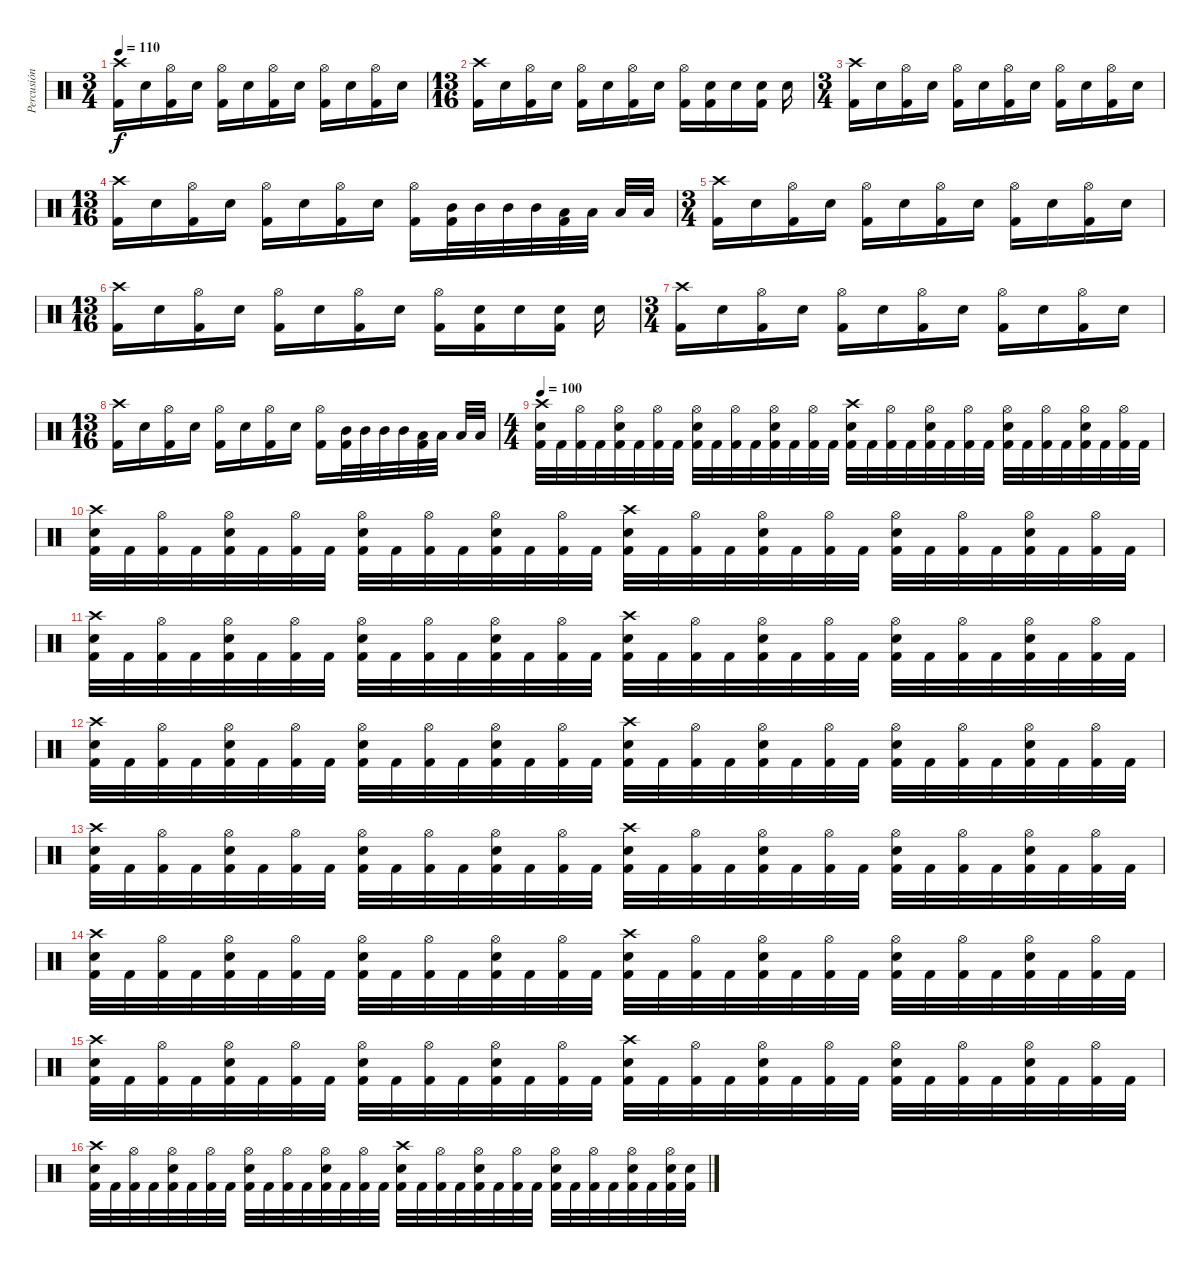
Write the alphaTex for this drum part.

\track ("Percusión" "Percusión") {instrument percussion}
\staff {score}
\articulation defaults
\ts (3 4)
\tempo 110
\clef neutral
\ks c
("Crash high (hit)" "Kick (hit) 2").16{dy f} "Electric Snare (hit)".16 ("Hi-Hat (open)" "Kick (hit) 2").16 "Electric Snare (hit)".16 ("Hi-Hat (open)" "Kick (hit) 2").16 "Electric Snare (hit)".16 ("Hi-Hat (open)" "Kick (hit) 2").16 "Electric Snare (hit)".16 ("Hi-Hat (open)" "Kick (hit) 2").16 "Electric Snare (hit)".16 ("Hi-Hat (open)" "Kick (hit) 2").16 "Electric Snare (hit)".16 |
\ts (13 16)
("Crash high (hit)" "Kick (hit) 2").16 "Electric Snare (hit)".16 ("Hi-Hat (open)" "Kick (hit) 2").16 "Electric Snare (hit)".16 ("Hi-Hat (open)" "Kick (hit) 2").16 "Electric Snare (hit)".16 ("Hi-Hat (open)" "Kick (hit) 2").16 "Electric Snare (hit)".16 ("Hi-Hat (open)" "Kick (hit) 2").16 ("Electric Snare (hit)" "Kick (hit) 2").16 "Electric Snare (hit)".16 ("Electric Snare (hit)" "Kick (hit) 2").16 "Electric Snare (hit)".16 |
\ts (3 4)
("Crash high (hit)" "Kick (hit) 2").16 "Electric Snare (hit)".16 ("Hi-Hat (open)" "Kick (hit) 2").16 "Electric Snare (hit)".16 ("Hi-Hat (open)" "Kick (hit) 2").16 "Electric Snare (hit)".16 ("Hi-Hat (open)" "Kick (hit) 2").16 "Electric Snare (hit)".16 ("Hi-Hat (open)" "Kick (hit) 2").16 "Electric Snare (hit)".16 ("Hi-Hat (open)" "Kick (hit) 2").16 "Electric Snare (hit)".16 |
\ts (13 16)
("Crash high (hit)" "Kick (hit) 2").16 "Electric Snare (hit)".16 ("Hi-Hat (open)" "Kick (hit) 2").16 "Electric Snare (hit)".16 ("Hi-Hat (open)" "Kick (hit) 2").16 "Electric Snare (hit)".16 ("Hi-Hat (open)" "Kick (hit) 2").16 "Electric Snare (hit)".16 ("Hi-Hat (open)" "Kick (hit) 2").16 ("Mid Tom (hit)" "Kick (hit) 2").32 "Mid Tom (hit)".32 "Mid Tom (hit)".32 "Mid Tom (hit)".32 ("Low Tom (hit)" "Kick (hit) 2").32 "Low Tom (hit)".32 "Low Tom (hit)".32 "Low Tom (hit)".32 |
\ts (3 4)
("Crash high (hit)" "Kick (hit) 2").16 "Electric Snare (hit)".16 ("Hi-Hat (open)" "Kick (hit) 2").16 "Electric Snare (hit)".16 ("Hi-Hat (open)" "Kick (hit) 2").16 "Electric Snare (hit)".16 ("Hi-Hat (open)" "Kick (hit) 2").16 "Electric Snare (hit)".16 ("Hi-Hat (open)" "Kick (hit) 2").16 "Electric Snare (hit)".16 ("Hi-Hat (open)" "Kick (hit) 2").16 "Electric Snare (hit)".16 |
\ts (13 16)
("Crash high (hit)" "Kick (hit) 2").16 "Electric Snare (hit)".16 ("Hi-Hat (open)" "Kick (hit) 2").16 "Electric Snare (hit)".16 ("Hi-Hat (open)" "Kick (hit) 2").16 "Electric Snare (hit)".16 ("Hi-Hat (open)" "Kick (hit) 2").16 "Electric Snare (hit)".16 ("Hi-Hat (open)" "Kick (hit) 2").16 ("Electric Snare (hit)" "Kick (hit) 2").16 "Electric Snare (hit)".16 ("Electric Snare (hit)" "Kick (hit) 2").16 "Electric Snare (hit)".16 |
\ts (3 4)
("Crash high (hit)" "Kick (hit) 2").16 "Electric Snare (hit)".16 ("Hi-Hat (open)" "Kick (hit) 2").16 "Electric Snare (hit)".16 ("Hi-Hat (open)" "Kick (hit) 2").16 "Electric Snare (hit)".16 ("Hi-Hat (open)" "Kick (hit) 2").16 "Electric Snare (hit)".16 ("Hi-Hat (open)" "Kick (hit) 2").16 "Electric Snare (hit)".16 ("Hi-Hat (open)" "Kick (hit) 2").16 "Electric Snare (hit)".16 |
\ts (13 16)
("Crash high (hit)" "Kick (hit) 2").16 "Electric Snare (hit)".16 ("Hi-Hat (open)" "Kick (hit) 2").16 "Electric Snare (hit)".16 ("Hi-Hat (open)" "Kick (hit) 2").16 "Electric Snare (hit)".16 ("Hi-Hat (open)" "Kick (hit) 2").16 "Electric Snare (hit)".16 ("Hi-Hat (open)" "Kick (hit) 2").16 ("Mid Tom (hit)" "Kick (hit) 2").32 "Mid Tom (hit)".32 "Mid Tom (hit)".32 "Mid Tom (hit)".32 ("Low Tom (hit)" "Kick (hit) 2").32 "Low Tom (hit)".32 "Low Tom (hit)".32 "Low Tom (hit)".32 |
\ts (4 4)
\tempo 100
("Crash high (hit)" "Electric Snare (hit)" "Kick (hit) 2").32 "Kick (hit) 2".32 ("Hi-Hat (open)" "Kick (hit) 2").32 "Kick (hit) 2".32 ("Hi-Hat (open)" "Electric Snare (hit)" "Kick (hit) 2").32 "Kick (hit) 2".32 ("Hi-Hat (open)" "Kick (hit) 2").32 "Kick (hit) 2".32 ("Hi-Hat (open)" "Electric Snare (hit)" "Kick (hit) 2").32 "Kick (hit) 2".32 ("Hi-Hat (open)" "Kick (hit) 2").32 "Kick (hit) 2".32 ("Hi-Hat (open)" "Electric Snare (hit)" "Kick (hit) 2").32 "Kick (hit) 2".32 ("Hi-Hat (open)" "Kick (hit) 2").32 "Kick (hit) 2".32 ("Crash high (hit)" "Electric Snare (hit)" "Kick (hit) 2").32 "Kick (hit) 2".32 ("Hi-Hat (open)" "Kick (hit) 2").32 "Kick (hit) 2".32 ("Hi-Hat (open)" "Electric Snare (hit)" "Kick (hit) 2").32 "Kick (hit) 2".32 ("Hi-Hat (open)" "Kick (hit) 2").32 "Kick (hit) 2".32 ("Hi-Hat (open)" "Electric Snare (hit)" "Kick (hit) 2").32 "Kick (hit) 2".32 ("Hi-Hat (open)" "Kick (hit) 2").32 "Kick (hit) 2".32 ("Hi-Hat (open)" "Electric Snare (hit)" "Kick (hit) 2").32 "Kick (hit) 2".32 ("Hi-Hat (open)" "Kick (hit) 2").32 "Kick (hit) 2".32 |
("Crash high (hit)" "Electric Snare (hit)" "Kick (hit) 2").32 "Kick (hit) 2".32 ("Hi-Hat (open)" "Kick (hit) 2").32 "Kick (hit) 2".32 ("Hi-Hat (open)" "Electric Snare (hit)" "Kick (hit) 2").32 "Kick (hit) 2".32 ("Hi-Hat (open)" "Kick (hit) 2").32 "Kick (hit) 2".32 ("Hi-Hat (open)" "Electric Snare (hit)" "Kick (hit) 2").32 "Kick (hit) 2".32 ("Hi-Hat (open)" "Kick (hit) 2").32 "Kick (hit) 2".32 ("Hi-Hat (open)" "Electric Snare (hit)" "Kick (hit) 2").32 "Kick (hit) 2".32 ("Hi-Hat (open)" "Kick (hit) 2").32 "Kick (hit) 2".32 ("Crash high (hit)" "Electric Snare (hit)" "Kick (hit) 2").32 "Kick (hit) 2".32 ("Hi-Hat (open)" "Kick (hit) 2").32 "Kick (hit) 2".32 ("Hi-Hat (open)" "Electric Snare (hit)" "Kick (hit) 2").32 "Kick (hit) 2".32 ("Hi-Hat (open)" "Kick (hit) 2").32 "Kick (hit) 2".32 ("Hi-Hat (open)" "Electric Snare (hit)" "Kick (hit) 2").32 "Kick (hit) 2".32 ("Hi-Hat (open)" "Kick (hit) 2").32 "Kick (hit) 2".32 ("Hi-Hat (open)" "Electric Snare (hit)" "Kick (hit) 2").32 "Kick (hit) 2".32 ("Hi-Hat (open)" "Kick (hit) 2").32 "Kick (hit) 2".32 |
("Crash high (hit)" "Electric Snare (hit)" "Kick (hit) 2").32 "Kick (hit) 2".32 ("Hi-Hat (open)" "Kick (hit) 2").32 "Kick (hit) 2".32 ("Hi-Hat (open)" "Electric Snare (hit)" "Kick (hit) 2").32 "Kick (hit) 2".32 ("Hi-Hat (open)" "Kick (hit) 2").32 "Kick (hit) 2".32 ("Hi-Hat (open)" "Electric Snare (hit)" "Kick (hit) 2").32 "Kick (hit) 2".32 ("Hi-Hat (open)" "Kick (hit) 2").32 "Kick (hit) 2".32 ("Hi-Hat (open)" "Electric Snare (hit)" "Kick (hit) 2").32 "Kick (hit) 2".32 ("Hi-Hat (open)" "Kick (hit) 2").32 "Kick (hit) 2".32 ("Crash high (hit)" "Electric Snare (hit)" "Kick (hit) 2").32 "Kick (hit) 2".32 ("Hi-Hat (open)" "Kick (hit) 2").32 "Kick (hit) 2".32 ("Hi-Hat (open)" "Electric Snare (hit)" "Kick (hit) 2").32 "Kick (hit) 2".32 ("Hi-Hat (open)" "Kick (hit) 2").32 "Kick (hit) 2".32 ("Hi-Hat (open)" "Electric Snare (hit)" "Kick (hit) 2").32 "Kick (hit) 2".32 ("Hi-Hat (open)" "Kick (hit) 2").32 "Kick (hit) 2".32 ("Hi-Hat (open)" "Electric Snare (hit)" "Kick (hit) 2").32 "Kick (hit) 2".32 ("Hi-Hat (open)" "Kick (hit) 2").32 "Kick (hit) 2".32 |
("Crash high (hit)" "Electric Snare (hit)" "Kick (hit) 2").32 "Kick (hit) 2".32 ("Hi-Hat (open)" "Kick (hit) 2").32 "Kick (hit) 2".32 ("Hi-Hat (open)" "Electric Snare (hit)" "Kick (hit) 2").32 "Kick (hit) 2".32 ("Hi-Hat (open)" "Kick (hit) 2").32 "Kick (hit) 2".32 ("Hi-Hat (open)" "Electric Snare (hit)" "Kick (hit) 2").32 "Kick (hit) 2".32 ("Hi-Hat (open)" "Kick (hit) 2").32 "Kick (hit) 2".32 ("Hi-Hat (open)" "Electric Snare (hit)" "Kick (hit) 2").32 "Kick (hit) 2".32 ("Hi-Hat (open)" "Kick (hit) 2").32 "Kick (hit) 2".32 ("Crash high (hit)" "Electric Snare (hit)" "Kick (hit) 2").32 "Kick (hit) 2".32 ("Hi-Hat (open)" "Kick (hit) 2").32 "Kick (hit) 2".32 ("Hi-Hat (open)" "Electric Snare (hit)" "Kick (hit) 2").32 "Kick (hit) 2".32 ("Hi-Hat (open)" "Kick (hit) 2").32 "Kick (hit) 2".32 ("Hi-Hat (open)" "Electric Snare (hit)" "Kick (hit) 2").32 "Kick (hit) 2".32 ("Hi-Hat (open)" "Kick (hit) 2").32 "Kick (hit) 2".32 ("Hi-Hat (open)" "Electric Snare (hit)" "Kick (hit) 2").32 "Kick (hit) 2".32 ("Hi-Hat (open)" "Kick (hit) 2").32 "Kick (hit) 2".32 |
("Crash high (hit)" "Electric Snare (hit)" "Kick (hit) 2").32 "Kick (hit) 2".32 ("Hi-Hat (open)" "Kick (hit) 2").32 "Kick (hit) 2".32 ("Hi-Hat (open)" "Electric Snare (hit)" "Kick (hit) 2").32 "Kick (hit) 2".32 ("Hi-Hat (open)" "Kick (hit) 2").32 "Kick (hit) 2".32 ("Hi-Hat (open)" "Electric Snare (hit)" "Kick (hit) 2").32 "Kick (hit) 2".32 ("Hi-Hat (open)" "Kick (hit) 2").32 "Kick (hit) 2".32 ("Hi-Hat (open)" "Electric Snare (hit)" "Kick (hit) 2").32 "Kick (hit) 2".32 ("Hi-Hat (open)" "Kick (hit) 2").32 "Kick (hit) 2".32 ("Crash high (hit)" "Electric Snare (hit)" "Kick (hit) 2").32 "Kick (hit) 2".32 ("Hi-Hat (open)" "Kick (hit) 2").32 "Kick (hit) 2".32 ("Hi-Hat (open)" "Electric Snare (hit)" "Kick (hit) 2").32 "Kick (hit) 2".32 ("Hi-Hat (open)" "Kick (hit) 2").32 "Kick (hit) 2".32 ("Hi-Hat (open)" "Electric Snare (hit)" "Kick (hit) 2").32 "Kick (hit) 2".32 ("Hi-Hat (open)" "Kick (hit) 2").32 "Kick (hit) 2".32 ("Hi-Hat (open)" "Electric Snare (hit)" "Kick (hit) 2").32 "Kick (hit) 2".32 ("Hi-Hat (open)" "Kick (hit) 2").32 "Kick (hit) 2".32 |
("Crash high (hit)" "Electric Snare (hit)" "Kick (hit) 2").32 "Kick (hit) 2".32 ("Hi-Hat (open)" "Kick (hit) 2").32 "Kick (hit) 2".32 ("Hi-Hat (open)" "Electric Snare (hit)" "Kick (hit) 2").32 "Kick (hit) 2".32 ("Hi-Hat (open)" "Kick (hit) 2").32 "Kick (hit) 2".32 ("Hi-Hat (open)" "Electric Snare (hit)" "Kick (hit) 2").32 "Kick (hit) 2".32 ("Hi-Hat (open)" "Kick (hit) 2").32 "Kick (hit) 2".32 ("Hi-Hat (open)" "Electric Snare (hit)" "Kick (hit) 2").32 "Kick (hit) 2".32 ("Hi-Hat (open)" "Kick (hit) 2").32 "Kick (hit) 2".32 ("Crash high (hit)" "Electric Snare (hit)" "Kick (hit) 2").32 "Kick (hit) 2".32 ("Hi-Hat (open)" "Kick (hit) 2").32 "Kick (hit) 2".32 ("Hi-Hat (open)" "Electric Snare (hit)" "Kick (hit) 2").32 "Kick (hit) 2".32 ("Hi-Hat (open)" "Kick (hit) 2").32 "Kick (hit) 2".32 ("Hi-Hat (open)" "Electric Snare (hit)" "Kick (hit) 2").32 "Kick (hit) 2".32 ("Hi-Hat (open)" "Kick (hit) 2").32 "Kick (hit) 2".32 ("Hi-Hat (open)" "Electric Snare (hit)" "Kick (hit) 2").32 "Kick (hit) 2".32 ("Hi-Hat (open)" "Kick (hit) 2").32 "Kick (hit) 2".32 |
("Crash high (hit)" "Electric Snare (hit)" "Kick (hit) 2").32 "Kick (hit) 2".32 ("Hi-Hat (open)" "Kick (hit) 2").32 "Kick (hit) 2".32 ("Hi-Hat (open)" "Electric Snare (hit)" "Kick (hit) 2").32 "Kick (hit) 2".32 ("Hi-Hat (open)" "Kick (hit) 2").32 "Kick (hit) 2".32 ("Hi-Hat (open)" "Electric Snare (hit)" "Kick (hit) 2").32 "Kick (hit) 2".32 ("Hi-Hat (open)" "Kick (hit) 2").32 "Kick (hit) 2".32 ("Hi-Hat (open)" "Electric Snare (hit)" "Kick (hit) 2").32 "Kick (hit) 2".32 ("Hi-Hat (open)" "Kick (hit) 2").32 "Kick (hit) 2".32 ("Crash high (hit)" "Electric Snare (hit)" "Kick (hit) 2").32 "Kick (hit) 2".32 ("Hi-Hat (open)" "Kick (hit) 2").32 "Kick (hit) 2".32 ("Hi-Hat (open)" "Electric Snare (hit)" "Kick (hit) 2").32 "Kick (hit) 2".32 ("Hi-Hat (open)" "Kick (hit) 2").32 "Kick (hit) 2".32 ("Hi-Hat (open)" "Electric Snare (hit)" "Kick (hit) 2").32 "Kick (hit) 2".32 ("Hi-Hat (open)" "Kick (hit) 2").32 "Kick (hit) 2".32 ("Hi-Hat (open)" "Electric Snare (hit)" "Kick (hit) 2").32 "Kick (hit) 2".32 ("Hi-Hat (open)" "Kick (hit) 2").32 "Kick (hit) 2".32 |
("Crash high (hit)" "Electric Snare (hit)" "Kick (hit) 2").32 "Kick (hit) 2".32 ("Hi-Hat (open)" "Kick (hit) 2").32 "Kick (hit) 2".32 ("Hi-Hat (open)" "Electric Snare (hit)" "Kick (hit) 2").32 "Kick (hit) 2".32 ("Hi-Hat (open)" "Kick (hit) 2").32 "Kick (hit) 2".32 ("Hi-Hat (open)" "Electric Snare (hit)" "Kick (hit) 2").32 "Kick (hit) 2".32 ("Hi-Hat (open)" "Kick (hit) 2").32 "Kick (hit) 2".32 ("Hi-Hat (open)" "Electric Snare (hit)" "Kick (hit) 2").32 "Kick (hit) 2".32 ("Hi-Hat (open)" "Kick (hit) 2").32 "Kick (hit) 2".32 ("Crash high (hit)" "Electric Snare (hit)" "Kick (hit) 2").32 "Kick (hit) 2".32 ("Hi-Hat (open)" "Kick (hit) 2").32 "Kick (hit) 2".32 ("Hi-Hat (open)" "Electric Snare (hit)" "Kick (hit) 2").32 "Kick (hit) 2".32 ("Hi-Hat (open)" "Kick (hit) 2").32 "Kick (hit) 2".32 ("Hi-Hat (open)" "Electric Snare (hit)" "Kick (hit) 2").32 "Kick (hit) 2".32 ("Hi-Hat (open)" "Kick (hit) 2").32 "Kick (hit) 2".32 ("Hi-Hat (open)" "Electric Snare (hit)" "Kick (hit) 2").32 "Kick (hit) 2".32 ("Hi-Hat (open)" "Electric Snare (hit)" "Kick (hit) 2").32 ("Electric Snare (hit)" "Kick (hit) 2").32
